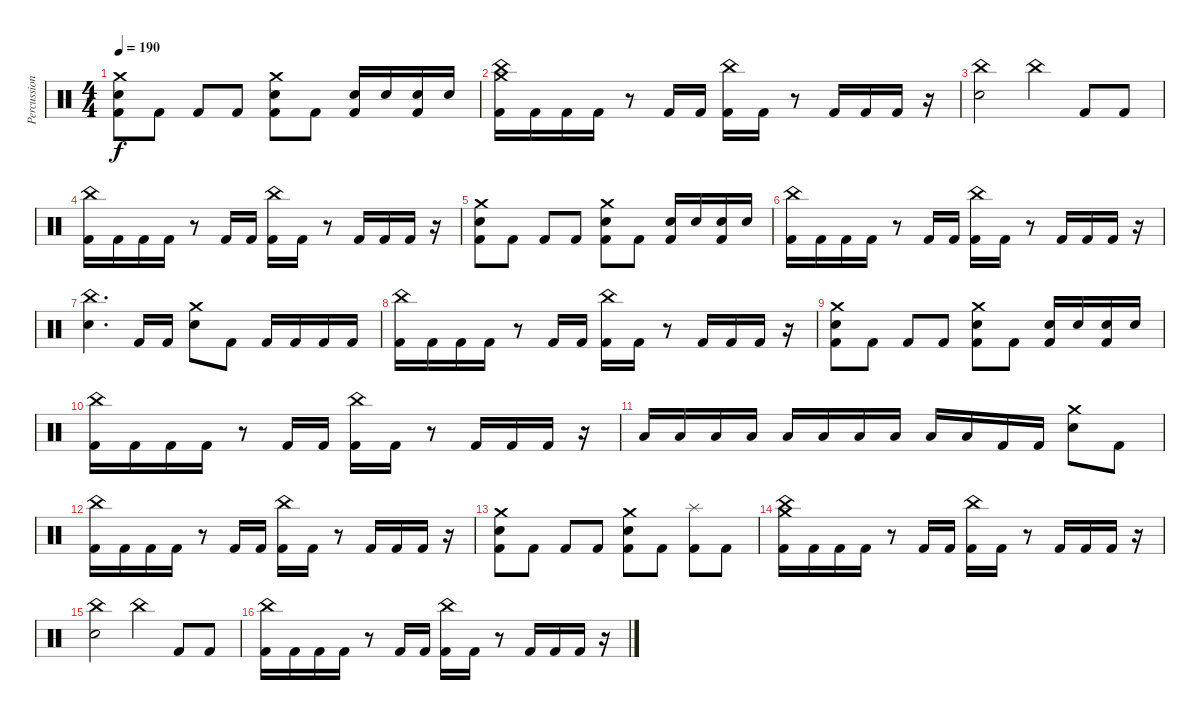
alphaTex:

\track ("Percussion" "Percussion") {instrument percussion}
\staff {score}
\articulation defaults
\ts (4 4)
\tempo 190
\clef neutral
\ks c
("Crash medium (hit)" "Electric Snare (hit)" "Kick (hit) 2").8{dy f} "Kick (hit) 2".8 "Kick (hit) 2".8 "Kick (hit) 2".8 ("Crash medium (hit)" "Electric Snare (hit)" "Kick (hit) 2").8 "Kick (hit) 2".8 ("Electric Snare (hit)" "Kick (hit) 2").16 "Electric Snare (hit)".16 ("Electric Snare (hit)" "Kick (hit) 2").16 "Electric Snare (hit)".16 |
("Crash medium (hit)" "China (hit)" "Kick (hit) 2").16 "Kick (hit) 2".16 "Kick (hit) 2".16 "Kick (hit) 2".16 r.8 "Kick (hit) 2".16 "Kick (hit) 2".16 ("China (hit)" "Kick (hit) 2").16 "Kick (hit) 2".16 r.8 "Kick (hit) 2".16 "Kick (hit) 2".16 "Kick (hit) 2".16 r.16 |
("China (hit)" "Electric Snare (hit)").2 "China (hit)".4 "Kick (hit) 2".8 "Kick (hit) 2".8 |
("China (hit)" "Kick (hit) 2").16 "Kick (hit) 2".16 "Kick (hit) 2".16 "Kick (hit) 2".16 r.8 "Kick (hit) 2".16 "Kick (hit) 2".16 ("China (hit)" "Kick (hit) 2").16 "Kick (hit) 2".16 r.8 "Kick (hit) 2".16 "Kick (hit) 2".16 "Kick (hit) 2".16 r.16 |
("Crash medium (hit)" "Electric Snare (hit)" "Kick (hit) 2").8 "Kick (hit) 2".8 "Kick (hit) 2".8 "Kick (hit) 2".8 ("Crash medium (hit)" "Electric Snare (hit)" "Kick (hit) 2").8 "Kick (hit) 2".8 ("Electric Snare (hit)" "Kick (hit) 2").16 "Electric Snare (hit)".16 ("Electric Snare (hit)" "Kick (hit) 2").16 "Electric Snare (hit)".16 |
("China (hit)" "Kick (hit) 2").16 "Kick (hit) 2".16 "Kick (hit) 2".16 "Kick (hit) 2".16 r.8 "Kick (hit) 2".16 "Kick (hit) 2".16 ("China (hit)" "Kick (hit) 2").16 "Kick (hit) 2".16 r.8 "Kick (hit) 2".16 "Kick (hit) 2".16 "Kick (hit) 2".16 r.16 |
("China (hit)" "Electric Snare (hit)").4{d} "Kick (hit) 2".16 "Kick (hit) 2".16 ("Crash medium (hit)" "Electric Snare (hit)").8 "Kick (hit) 2".8 "Kick (hit) 2".16 "Kick (hit) 2".16 "Kick (hit) 2".16 "Kick (hit) 2".16 |
("China (hit)" "Kick (hit) 2").16 "Kick (hit) 2".16 "Kick (hit) 2".16 "Kick (hit) 2".16 r.8 "Kick (hit) 2".16 "Kick (hit) 2".16 ("China (hit)" "Kick (hit) 2").16 "Kick (hit) 2".16 r.8 "Kick (hit) 2".16 "Kick (hit) 2".16 "Kick (hit) 2".16 r.16 |
("Crash medium (hit)" "Electric Snare (hit)" "Kick (hit) 2").8 "Kick (hit) 2".8 "Kick (hit) 2".8 "Kick (hit) 2".8 ("Crash medium (hit)" "Electric Snare (hit)" "Kick (hit) 2").8 "Kick (hit) 2".8 ("Electric Snare (hit)" "Kick (hit) 2").16 "Electric Snare (hit)".16 ("Electric Snare (hit)" "Kick (hit) 2").16 "Electric Snare (hit)".16 |
("China (hit)" "Kick (hit) 2").16 "Kick (hit) 2".16 "Kick (hit) 2".16 "Kick (hit) 2".16 r.8 "Kick (hit) 2".16 "Kick (hit) 2".16 ("China (hit)" "Kick (hit) 2").16 "Kick (hit) 2".16 r.8 "Kick (hit) 2".16 "Kick (hit) 2".16 "Kick (hit) 2".16 r.16 |
"Low Tom (hit)".16 "Low Tom (hit)".16 "Low Tom (hit)".16 "Low Tom (hit)".16 "Low Tom (hit)".16 "Low Tom (hit)".16 "Low Floor Tom (hit)".16 "Low Floor Tom (hit)".16 "Low Floor Tom (hit)".16 "Low Floor Tom (hit)".16 "Kick (hit) 2".16 "Kick (hit) 2".16 ("Crash medium (hit)" "Electric Snare (hit)").8 "Kick (hit) 2".8 |
("China (hit)" "Kick (hit) 2").16 "Kick (hit) 2".16 "Kick (hit) 2".16 "Kick (hit) 2".16 r.8 "Kick (hit) 2".16 "Kick (hit) 2".16 ("China (hit)" "Kick (hit) 2").16 "Kick (hit) 2".16 r.8 "Kick (hit) 2".16 "Kick (hit) 2".16 "Kick (hit) 2".16 r.16 |
("Crash medium (hit)" "Electric Snare (hit)" "Kick (hit) 2").8 "Kick (hit) 2".8 "Kick (hit) 2".8 "Kick (hit) 2".8 ("Crash medium (hit)" "Electric Snare (hit)" "Kick (hit) 2").8 "Kick (hit) 2".8 ("Splash (hit)" "Kick (hit) 2").8 "Kick (hit) 2".8 |
("Crash medium (hit)" "China (hit)" "Kick (hit) 2").16 "Kick (hit) 2".16 "Kick (hit) 2".16 "Kick (hit) 2".16 r.8 "Kick (hit) 2".16 "Kick (hit) 2".16 ("China (hit)" "Kick (hit) 2").16 "Kick (hit) 2".16 r.8 "Kick (hit) 2".16 "Kick (hit) 2".16 "Kick (hit) 2".16 r.16 |
("China (hit)" "Electric Snare (hit)").2 "China (hit)".4 "Kick (hit) 2".8 "Kick (hit) 2".8 |
("China (hit)" "Kick (hit) 2").16 "Kick (hit) 2".16 "Kick (hit) 2".16 "Kick (hit) 2".16 r.8 "Kick (hit) 2".16 "Kick (hit) 2".16 ("China (hit)" "Kick (hit) 2").16 "Kick (hit) 2".16 r.8 "Kick (hit) 2".16 "Kick (hit) 2".16 "Kick (hit) 2".16 r.16
